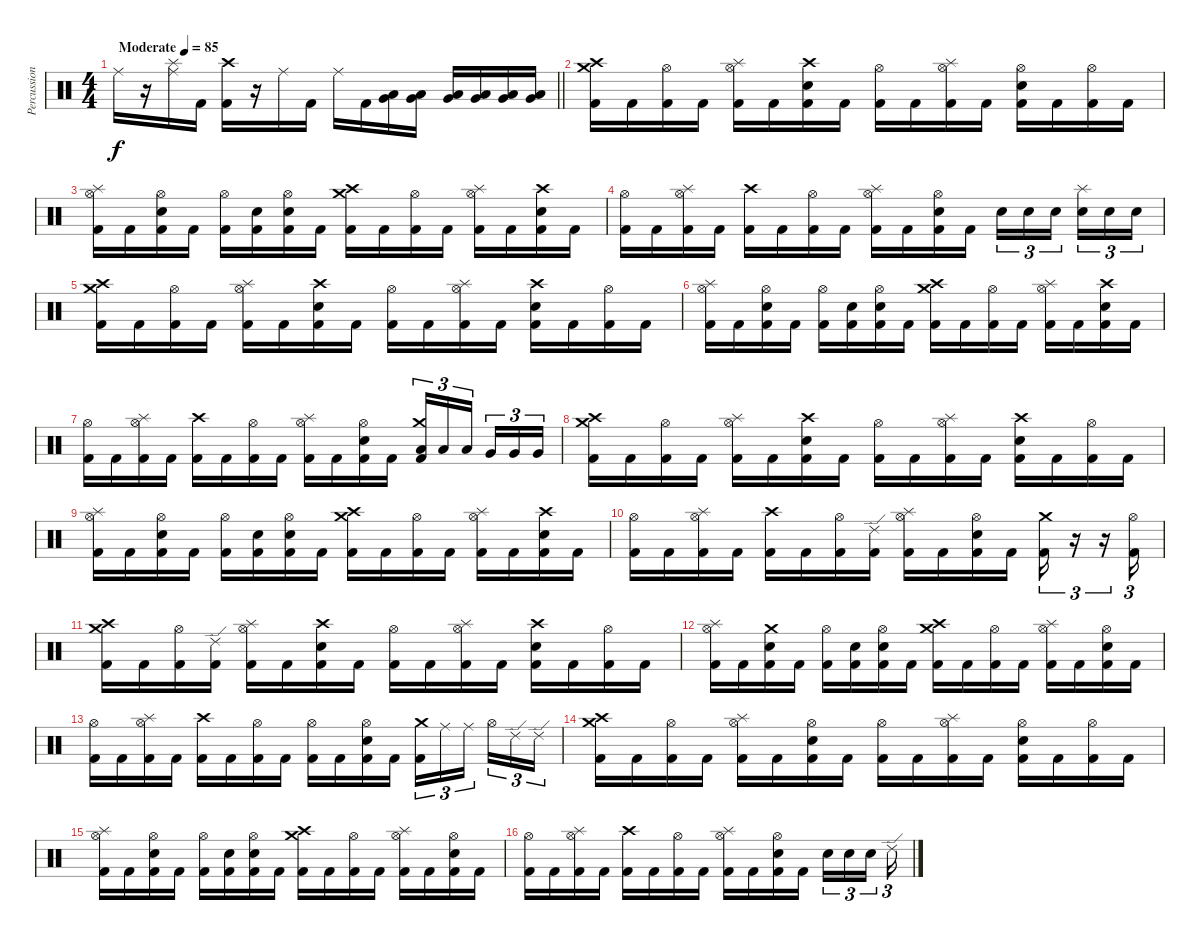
\track ("Percussion" "Percussion") {instrument percussion}
\staff {score}
\articulation defaults
\ts (4 4)
\tempo (85 "Moderate")
\clef neutral
\barLineRight lightlight
\ks c "Ride (middle)".16{dy f}
r.16 ("Ride (middle)" "Splash (hit)").16 "Kick (hit) 2".16 ("Crash high (hit)" "Kick (hit) 2").16 r.16 "Ride (middle)".16 "Kick (hit) 2".16 "Ride (middle)".16 "Kick (hit) 2".16 ("Low Floor Tom (hit)" "Very Low Tom (hit)").16 ("Low Floor Tom (hit)" "Very Low Tom (hit)").16 ("Low Floor Tom (hit)" "Very Low Tom (hit)").16 ("Low Floor Tom (hit)" "Very Low Tom (hit)").16 ("Low Floor Tom (hit)" "Very Low Tom (hit)").16 ("Low Floor Tom (hit)" "Very Low Tom (hit)").16 |
("Crash medium (hit)" "Crash high (hit)" "Kick (hit) 2").16 "Kick (hit) 2".16 ("Hi-Hat (open)" "Kick (hit) 2").16 "Kick (hit) 2".16 ("Hi-Hat (open)" "Splash (hit)" "Kick (hit) 2").16 "Kick (hit) 2".16 ("Crash high (hit)" "Snare (hit) 2" "Kick (hit) 2").16 "Kick (hit) 2".16 ("Hi-Hat (open)" "Kick (hit) 2").16 "Kick (hit) 2".16 ("Hi-Hat (open)" "Splash (hit)" "Kick (hit) 2").16 "Kick (hit) 2".16 ("Hi-Hat (open)" "Snare (hit) 2" "Kick (hit) 2").16 "Kick (hit) 2".16 ("Hi-Hat (open)" "Kick (hit) 2").16 "Kick (hit) 2".16 |
("Hi-Hat (open)" "Splash (hit)" "Kick (hit) 2").16 "Kick (hit) 2".16 ("Hi-Hat (open)" "Snare (hit) 2" "Kick (hit) 2").16 "Kick (hit) 2".16 ("Hi-Hat (open)" "Kick (hit) 2").16 ("Snare (hit) 2" "Kick (hit) 2").16 ("Hi-Hat (open)" "Snare (hit) 2" "Kick (hit) 2").16 "Kick (hit) 2".16 ("Crash medium (hit)" "Crash high (hit)" "Kick (hit) 2").16 "Kick (hit) 2".16 ("Hi-Hat (open)" "Kick (hit) 2").16 "Kick (hit) 2".16 ("Hi-Hat (open)" "Splash (hit)" "Kick (hit) 2").16 "Kick (hit) 2".16 ("Crash high (hit)" "Snare (hit) 2" "Kick (hit) 2").16 "Kick (hit) 2".16 |
("Hi-Hat (open)" "Kick (hit) 2").16 "Kick (hit) 2".16 ("Hi-Hat (open)" "Splash (hit)" "Kick (hit) 2").16 "Kick (hit) 2".16 ("Crash high (hit)" "Kick (hit) 2").16 "Kick (hit) 2".16 ("Hi-Hat (open)" "Kick (hit) 2").16 "Kick (hit) 2".16 ("Hi-Hat (open)" "Splash (hit)" "Kick (hit) 2").16 "Kick (hit) 2".16 ("Hi-Hat (open)" "Snare (hit) 2" "Kick (hit) 2").16 "Kick (hit) 2".16 "Snare (hit) 2".16{tu (3 2)} "Snare (hit) 2".16{tu (3 2)} "Snare (hit) 2".16{tu (3 2) beam splitsecondary} ("Splash (hit)" "Snare (hit) 2").16{tu (3 2)} "Snare (hit) 2".16{tu (3 2)} "Snare (hit) 2".16{tu (3 2)} |
("Crash medium (hit)" "Crash high (hit)" "Kick (hit) 2").16 "Kick (hit) 2".16 ("Hi-Hat (open)" "Kick (hit) 2").16 "Kick (hit) 2".16 ("Hi-Hat (open)" "Splash (hit)" "Kick (hit) 2").16 "Kick (hit) 2".16 ("Crash high (hit)" "Snare (hit) 2" "Kick (hit) 2").16 "Kick (hit) 2".16 ("Hi-Hat (open)" "Kick (hit) 2").16 "Kick (hit) 2".16 ("Hi-Hat (open)" "Splash (hit)" "Kick (hit) 2").16 "Kick (hit) 2".16 ("Crash high (hit)" "Snare (hit) 2" "Kick (hit) 2").16 "Kick (hit) 2".16 ("Hi-Hat (open)" "Kick (hit) 2").16 "Kick (hit) 2".16 |
("Hi-Hat (open)" "Splash (hit)" "Kick (hit) 2").16 "Kick (hit) 2".16 ("Hi-Hat (open)" "Snare (hit) 2" "Kick (hit) 2").16 "Kick (hit) 2".16 ("Hi-Hat (open)" "Kick (hit) 2").16 ("Snare (hit) 2" "Kick (hit) 2").16 ("Hi-Hat (open)" "Snare (hit) 2" "Kick (hit) 2").16 "Kick (hit) 2".16 ("Crash medium (hit)" "Crash high (hit)" "Kick (hit) 2").16 "Kick (hit) 2".16 ("Hi-Hat (open)" "Kick (hit) 2").16 "Kick (hit) 2".16 ("Hi-Hat (open)" "Splash (hit)" "Kick (hit) 2").16 "Kick (hit) 2".16 ("Crash high (hit)" "Snare (hit) 2" "Kick (hit) 2").16 "Kick (hit) 2".16 |
("Hi-Hat (open)" "Kick (hit) 2").16 "Kick (hit) 2".16 ("Hi-Hat (open)" "Splash (hit)" "Kick (hit) 2").16 "Kick (hit) 2".16 ("Crash high (hit)" "Kick (hit) 2").16 "Kick (hit) 2".16 ("Hi-Hat (open)" "Kick (hit) 2").16 "Kick (hit) 2".16 ("Hi-Hat (open)" "Splash (hit)" "Kick (hit) 2").16 "Kick (hit) 2".16 ("Hi-Hat (open)" "Snare (hit) 2" "Kick (hit) 2").16 "Kick (hit) 2".16 ("Crash medium (hit)" "Low Tom (hit)" "Kick (hit) 2").16{tu (3 2)} "Low Tom (hit)".16{tu (3 2)} "Low Tom (hit)".16{tu (3 2) beam splitsecondary} "Very Low Tom (hit)".16{tu (3 2)} "Very Low Tom (hit)".16{tu (3 2)} "Very Low Tom (hit)".16{tu (3 2)} |
("Crash medium (hit)" "Crash high (hit)" "Kick (hit) 2").16 "Kick (hit) 2".16 ("Hi-Hat (open)" "Kick (hit) 2").16 "Kick (hit) 2".16 ("Hi-Hat (open)" "Splash (hit)" "Kick (hit) 2").16 "Kick (hit) 2".16 ("Crash high (hit)" "Snare (hit) 2" "Kick (hit) 2").16 "Kick (hit) 2".16 ("Hi-Hat (open)" "Kick (hit) 2").16 "Kick (hit) 2".16 ("Hi-Hat (open)" "Splash (hit)" "Kick (hit) 2").16 "Kick (hit) 2".16 ("Crash high (hit)" "Snare (hit) 2" "Kick (hit) 2").16 "Kick (hit) 2".16 ("Hi-Hat (open)" "Kick (hit) 2").16 "Kick (hit) 2".16 |
("Hi-Hat (open)" "Splash (hit)" "Kick (hit) 2").16 "Kick (hit) 2".16 ("Hi-Hat (open)" "Snare (hit) 2" "Kick (hit) 2").16 "Kick (hit) 2".16 ("Hi-Hat (open)" "Kick (hit) 2").16 ("Snare (hit) 2" "Kick (hit) 2").16 ("Hi-Hat (open)" "Snare (hit) 2" "Kick (hit) 2").16 "Kick (hit) 2".16 ("Crash medium (hit)" "Crash high (hit)" "Kick (hit) 2").16 "Kick (hit) 2".16 ("Hi-Hat (open)" "Kick (hit) 2").16 "Kick (hit) 2".16 ("Hi-Hat (open)" "Splash (hit)" "Kick (hit) 2").16 "Kick (hit) 2".16 ("Crash high (hit)" "Snare (hit) 2" "Kick (hit) 2").16 "Kick (hit) 2".16 |
("Hi-Hat (open)" "Kick (hit) 2").16 "Kick (hit) 2".16 ("Hi-Hat (open)" "Splash (hit)" "Kick (hit) 2").16 "Kick (hit) 2".16 ("Crash high (hit)" "Kick (hit) 2").16 "Kick (hit) 2".16 ("Hi-Hat (open)" "Kick (hit) 2").16 ("Ride (edge) 2" "Kick (hit) 2").16 ("Hi-Hat (open)" "Splash (hit)" "Kick (hit) 2").16 "Kick (hit) 2".16 ("Hi-Hat (open)" "Snare (hit) 2" "Kick (hit) 2").16 "Kick (hit) 2".16 ("Crash medium (hit)" "Kick (hit) 2").16{tu (3 2)} r.16{tu (3 2)} r.16{tu (3 2)} ("Hi-Hat (open)" "Kick (hit) 2").16{tu (3 2)} |
("Crash medium (hit)" "Crash high (hit)" "Kick (hit) 2").16 "Kick (hit) 2".16 ("Hi-Hat (open)" "Kick (hit) 2").16 ("Ride (edge) 2" "Kick (hit) 2").16 ("Hi-Hat (open)" "Splash (hit)" "Kick (hit) 2").16 "Kick (hit) 2".16 ("Crash high (hit)" "Snare (hit) 2" "Kick (hit) 2").16 "Kick (hit) 2".16 ("Hi-Hat (open)" "Kick (hit) 2").16 "Kick (hit) 2".16 ("Hi-Hat (open)" "Splash (hit)" "Kick (hit) 2").16 "Kick (hit) 2".16 ("Crash high (hit)" "Snare (hit) 2" "Kick (hit) 2").16 "Kick (hit) 2".16 ("Hi-Hat (open)" "Kick (hit) 2").16 "Kick (hit) 2".16 |
("Hi-Hat (open)" "Splash (hit)" "Kick (hit) 2").16 "Kick (hit) 2".16 ("Crash medium (hit)" "Snare (hit) 2" "Kick (hit) 2").16 "Kick (hit) 2".16 ("Hi-Hat (open)" "Kick (hit) 2").16 ("Snare (hit) 2" "Kick (hit) 2").16 ("Hi-Hat (open)" "Snare (hit) 2" "Kick (hit) 2").16 "Kick (hit) 2".16 ("Crash medium (hit)" "Crash high (hit)" "Kick (hit) 2").16 "Kick (hit) 2".16 ("Hi-Hat (open)" "Kick (hit) 2").16 "Kick (hit) 2".16 ("Hi-Hat (open)" "Splash (hit)" "Kick (hit) 2").16 "Kick (hit) 2".16 ("Hi-Hat (open)" "Snare (hit) 2" "Kick (hit) 2").16 "Kick (hit) 2".16 |
("Hi-Hat (open)" "Kick (hit) 2").16 "Kick (hit) 2".16 ("Hi-Hat (open)" "Splash (hit)" "Kick (hit) 2").16 "Kick (hit) 2".16 ("Crash high (hit)" "Kick (hit) 2").16 "Kick (hit) 2".16 ("Hi-Hat (open)" "Kick (hit) 2").16 "Kick (hit) 2".16 ("Hi-Hat (open)" "Kick (hit) 2").16 "Kick (hit) 2".16 ("Hi-Hat (open)" "Snare (hit) 2" "Kick (hit) 2").16 "Kick (hit) 2".16 ("Crash medium (hit)" "Kick (hit) 2").16{tu (3 2)} "Ride (middle)".16{tu (3 2)} "Ride (middle)".16{tu (3 2) beam splitsecondary} "Hi-Hat (open)".16{tu (3 2)} "Ride (edge) 2".16{tu (3 2)} "Ride (edge) 2".16{tu (3 2)} |
("Crash medium (hit)" "Crash high (hit)" "Kick (hit) 2").16 "Kick (hit) 2".16 ("Hi-Hat (open)" "Kick (hit) 2").16 "Kick (hit) 2".16 ("Hi-Hat (open)" "Splash (hit)" "Kick (hit) 2").16 "Kick (hit) 2".16 ("Hi-Hat (open)" "Snare (hit) 2" "Kick (hit) 2").16 "Kick (hit) 2".16 ("Hi-Hat (open)" "Kick (hit) 2").16 "Kick (hit) 2".16 ("Hi-Hat (open)" "Splash (hit)" "Kick (hit) 2").16 "Kick (hit) 2".16 ("Hi-Hat (open)" "Snare (hit) 2" "Kick (hit) 2").16 "Kick (hit) 2".16 ("Hi-Hat (open)" "Kick (hit) 2").16 "Kick (hit) 2".16 |
("Hi-Hat (open)" "Splash (hit)" "Kick (hit) 2").16 "Kick (hit) 2".16 ("Hi-Hat (open)" "Snare (hit) 2" "Kick (hit) 2").16 "Kick (hit) 2".16 ("Hi-Hat (open)" "Kick (hit) 2").16 ("Snare (hit) 2" "Kick (hit) 2").16 ("Hi-Hat (open)" "Snare (hit) 2" "Kick (hit) 2").16 "Kick (hit) 2".16 ("Crash medium (hit)" "Crash high (hit)" "Kick (hit) 2").16 "Kick (hit) 2".16 ("Hi-Hat (open)" "Kick (hit) 2").16 "Kick (hit) 2".16 ("Hi-Hat (open)" "Splash (hit)" "Kick (hit) 2").16 "Kick (hit) 2".16 ("Hi-Hat (open)" "Snare (hit) 2" "Kick (hit) 2").16 "Kick (hit) 2".16 |
("Hi-Hat (open)" "Kick (hit) 2").16 "Kick (hit) 2".16 ("Hi-Hat (open)" "Splash (hit)" "Kick (hit) 2").16 "Kick (hit) 2".16 ("Crash high (hit)" "Kick (hit) 2").16 "Kick (hit) 2".16 ("Hi-Hat (open)" "Kick (hit) 2").16 "Kick (hit) 2".16 ("Hi-Hat (open)" "Splash (hit)" "Kick (hit) 2").16 "Kick (hit) 2".16 ("Hi-Hat (open)" "Snare (hit) 2" "Kick (hit) 2").16 "Kick (hit) 2".16 "Snare (hit) 2".16{tu (3 2)} "Snare (hit) 2".16{tu (3 2)} "Snare (hit) 2".16{tu (3 2) beam splitsecondary} "Ride (edge) 2".16{tu (3 2)}
